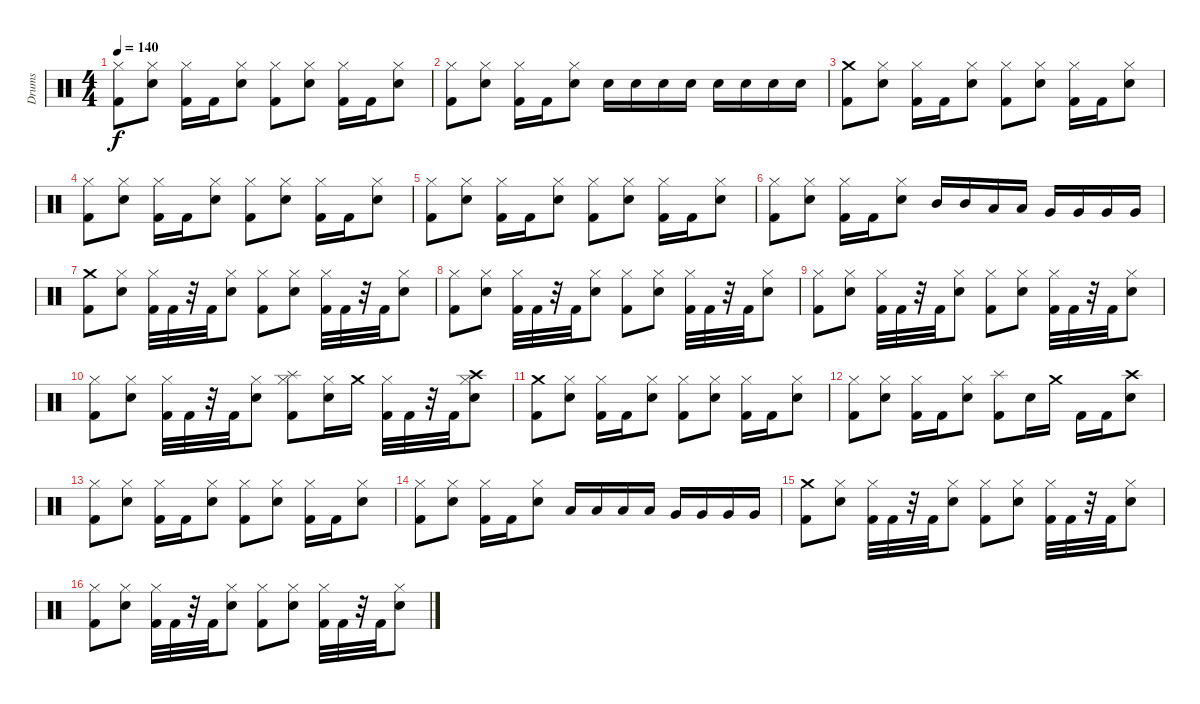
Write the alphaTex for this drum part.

\track ("Drums" "Drums") {instrument percussion}
\staff {score}
\articulation defaults
\ts (4 4)
\tempo 140
\clef neutral
\ks c
("Hi-Hat (closed)" "Kick (hit) 2").8{dy f} ("Hi-Hat (closed)" "Electric Snare (hit)").8 ("Hi-Hat (closed)" "Kick (hit) 2").16 "Kick (hit) 2".16 ("Hi-Hat (closed)" "Electric Snare (hit)").8 ("Hi-Hat (closed)" "Kick (hit) 2").8 ("Hi-Hat (closed)" "Electric Snare (hit)").8 ("Hi-Hat (closed)" "Kick (hit) 2").16 "Kick (hit) 2".16 ("Hi-Hat (closed)" "Electric Snare (hit)").8 |
("Hi-Hat (closed)" "Kick (hit) 2").8 ("Hi-Hat (closed)" "Electric Snare (hit)").8 ("Hi-Hat (closed)" "Kick (hit) 2").16 "Kick (hit) 2".16 ("Hi-Hat (closed)" "Electric Snare (hit)").8 "Electric Snare (hit)".16 "Electric Snare (hit)".16 "Electric Snare (hit)".16 "Electric Snare (hit)".16 "Electric Snare (hit)".16 "Electric Snare (hit)".16 "Electric Snare (hit)".16 "Electric Snare (hit)".16 |
("Crash medium (hit)" "Kick (hit) 2").8 ("Hi-Hat (closed)" "Electric Snare (hit)").8 ("Hi-Hat (closed)" "Kick (hit) 2").16 "Kick (hit) 2".16 ("Hi-Hat (closed)" "Electric Snare (hit)").8 ("Hi-Hat (closed)" "Kick (hit) 2").8 ("Hi-Hat (closed)" "Electric Snare (hit)").8 ("Hi-Hat (closed)" "Kick (hit) 2").16 "Kick (hit) 2".16 ("Hi-Hat (closed)" "Electric Snare (hit)").8 |
("Hi-Hat (closed)" "Kick (hit) 2").8 ("Hi-Hat (closed)" "Electric Snare (hit)").8 ("Hi-Hat (closed)" "Kick (hit) 2").16 "Kick (hit) 2".16 ("Hi-Hat (closed)" "Electric Snare (hit)").8 ("Hi-Hat (closed)" "Kick (hit) 2").8 ("Hi-Hat (closed)" "Electric Snare (hit)").8 ("Hi-Hat (closed)" "Kick (hit) 2").16 "Kick (hit) 2".16 ("Hi-Hat (closed)" "Electric Snare (hit)").8 |
("Hi-Hat (closed)" "Kick (hit) 2").8 ("Hi-Hat (closed)" "Electric Snare (hit)").8 ("Hi-Hat (closed)" "Kick (hit) 2").16 "Kick (hit) 2".16 ("Hi-Hat (closed)" "Electric Snare (hit)").8 ("Hi-Hat (closed)" "Kick (hit) 2").8 ("Hi-Hat (closed)" "Electric Snare (hit)").8 ("Hi-Hat (closed)" "Kick (hit) 2").16 "Kick (hit) 2".16 ("Hi-Hat (closed)" "Electric Snare (hit)").8 |
("Hi-Hat (closed)" "Kick (hit) 2").8 ("Hi-Hat (closed)" "Electric Snare (hit)").8 ("Hi-Hat (closed)" "Kick (hit) 2").16 "Kick (hit) 2".16 ("Hi-Hat (closed)" "Electric Snare (hit)").8 "Mid Tom (hit)".16 "Mid Tom (hit)".16 "Low Tom (hit)".16 "Low Tom (hit)".16 "Very Low Tom (hit)".16 "Very Low Tom (hit)".16 "Very Low Tom (hit)".16 "Very Low Tom (hit)".16 |
("Crash medium (hit)" "Kick (hit) 2").8 ("Hi-Hat (closed)" "Electric Snare (hit)").8 ("Hi-Hat (closed)" "Kick (hit) 2").32 "Kick (hit) 2".32 r.32 "Kick (hit) 2".32 ("Hi-Hat (closed)" "Electric Snare (hit)").8 ("Hi-Hat (closed)" "Kick (hit) 2").8 ("Hi-Hat (closed)" "Electric Snare (hit)").8 ("Hi-Hat (closed)" "Kick (hit) 2").32 "Kick (hit) 2".32 r.32 "Kick (hit) 2".32 ("Hi-Hat (closed)" "Electric Snare (hit)").8 |
("Hi-Hat (closed)" "Kick (hit) 2").8 ("Hi-Hat (closed)" "Electric Snare (hit)").8 ("Hi-Hat (closed)" "Kick (hit) 2").32 "Kick (hit) 2".32 r.32 "Kick (hit) 2".32 ("Hi-Hat (closed)" "Electric Snare (hit)").8 ("Hi-Hat (closed)" "Kick (hit) 2").8 ("Hi-Hat (closed)" "Electric Snare (hit)").8 ("Hi-Hat (closed)" "Kick (hit) 2").32 "Kick (hit) 2".32 r.32 "Kick (hit) 2".32 ("Hi-Hat (closed)" "Electric Snare (hit)").8 |
("Hi-Hat (closed)" "Kick (hit) 2").8 ("Hi-Hat (closed)" "Electric Snare (hit)").8 ("Hi-Hat (closed)" "Kick (hit) 2").32 "Kick (hit) 2".32 r.32 "Kick (hit) 2".32 ("Hi-Hat (closed)" "Electric Snare (hit)").8 ("Hi-Hat (closed)" "Kick (hit) 2").8 ("Hi-Hat (closed)" "Electric Snare (hit)").8 ("Hi-Hat (closed)" "Kick (hit) 2").32 "Kick (hit) 2".32 r.32 "Kick (hit) 2".32 ("Hi-Hat (closed)" "Electric Snare (hit)").8 |
("Hi-Hat (closed)" "Kick (hit) 2").8 ("Hi-Hat (closed)" "Electric Snare (hit)").8 ("Hi-Hat (closed)" "Kick (hit) 2").32 "Kick (hit) 2".32 r.32 "Kick (hit) 2".32 ("Hi-Hat (closed)" "Electric Snare (hit)").8 ("Splash (hit)" "Hi-Hat (closed)" "Kick (hit) 2").8 ("Hi-Hat (closed)" "Electric Snare (hit)").16 "Crash medium (hit)".16 ("Hi-Hat (closed)" "Kick (hit) 2").32 "Kick (hit) 2".32 r.32 "Kick (hit) 2".32 ("Crash high (hit)" "Hi-Hat (closed)" "Electric Snare (hit)").8 |
("Crash medium (hit)" "Kick (hit) 2").8 ("Hi-Hat (closed)" "Electric Snare (hit)").8 ("Hi-Hat (closed)" "Kick (hit) 2").16 "Kick (hit) 2".16 ("Hi-Hat (closed)" "Electric Snare (hit)").8 ("Hi-Hat (closed)" "Kick (hit) 2").8 ("Hi-Hat (closed)" "Electric Snare (hit)").8 ("Hi-Hat (closed)" "Kick (hit) 2").16 "Kick (hit) 2".16 ("Hi-Hat (closed)" "Electric Snare (hit)").8 |
("Hi-Hat (closed)" "Kick (hit) 2").8 ("Hi-Hat (closed)" "Electric Snare (hit)").8 ("Hi-Hat (closed)" "Kick (hit) 2").16 "Kick (hit) 2".16 ("Hi-Hat (closed)" "Electric Snare (hit)").8 ("Splash (hit)" "Kick (hit) 2").8 "Electric Snare (hit)".16 "Crash medium (hit)".16 "Kick (hit) 2".16 "Kick (hit) 2".16 ("Crash high (hit)" "Electric Snare (hit)").8 |
("Hi-Hat (closed)" "Kick (hit) 2").8 ("Hi-Hat (closed)" "Electric Snare (hit)").8 ("Hi-Hat (closed)" "Kick (hit) 2").16 "Kick (hit) 2".16 ("Hi-Hat (closed)" "Electric Snare (hit)").8 ("Hi-Hat (closed)" "Kick (hit) 2").8 ("Hi-Hat (closed)" "Electric Snare (hit)").8 ("Hi-Hat (closed)" "Kick (hit) 2").16 "Kick (hit) 2".16 ("Hi-Hat (closed)" "Electric Snare (hit)").8 |
("Hi-Hat (closed)" "Kick (hit) 2").8 ("Hi-Hat (closed)" "Electric Snare (hit)").8 ("Hi-Hat (closed)" "Kick (hit) 2").16 "Kick (hit) 2".16 ("Hi-Hat (closed)" "Electric Snare (hit)").8 "Low Tom (hit)".16 "Low Tom (hit)".16 "Low Tom (hit)".16 "Low Tom (hit)".16 "Very Low Tom (hit)".16 "Very Low Tom (hit)".16 "Very Low Tom (hit)".16 "Very Low Tom (hit)".16 |
("Crash medium (hit)" "Kick (hit) 2").8 ("Hi-Hat (closed)" "Electric Snare (hit)").8 ("Hi-Hat (closed)" "Kick (hit) 2").32 "Kick (hit) 2".32 r.32 "Kick (hit) 2".32 ("Hi-Hat (closed)" "Electric Snare (hit)").8 ("Hi-Hat (closed)" "Kick (hit) 2").8 ("Hi-Hat (closed)" "Electric Snare (hit)").8 ("Hi-Hat (closed)" "Kick (hit) 2").32 "Kick (hit) 2".32 r.32 "Kick (hit) 2".32 ("Hi-Hat (closed)" "Electric Snare (hit)").8 |
("Hi-Hat (closed)" "Kick (hit) 2").8 ("Hi-Hat (closed)" "Electric Snare (hit)").8 ("Hi-Hat (closed)" "Kick (hit) 2").32 "Kick (hit) 2".32 r.32 "Kick (hit) 2".32 ("Hi-Hat (closed)" "Electric Snare (hit)").8 ("Hi-Hat (closed)" "Kick (hit) 2").8 ("Hi-Hat (closed)" "Electric Snare (hit)").8 ("Hi-Hat (closed)" "Kick (hit) 2").32 "Kick (hit) 2".32 r.32 "Kick (hit) 2".32 ("Hi-Hat (closed)" "Electric Snare (hit)").8
